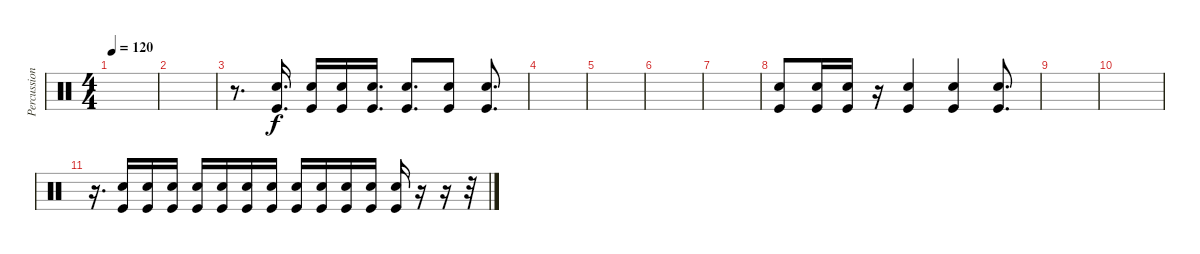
\track ("Percussion" "Percussion") {instrument percussion}
\staff {score}
\articulation defaults
\ts (4 4)
\tempo 120
\clef neutral
\ks c
|
|
r.8{d} ("Snare (hit) 2" "Kick (hit)").16{d} ("Snare (hit) 2" "Kick (hit)").16 ("Snare (hit) 2" "Kick (hit)").16 ("Snare (hit) 2" "Kick (hit)").16{d} ("Snare (hit) 2" "Kick (hit)").8{d} ("Snare (hit) 2" "Kick (hit)").8 ("Snare (hit) 2" "Kick (hit)").8{d} |
|
|
|
|
("Snare (hit) 2" "Kick (hit)").8 ("Snare (hit) 2" "Kick (hit)").16 ("Snare (hit) 2" "Kick (hit)").16 r.16 ("Snare (hit) 2" "Kick (hit)").4 ("Snare (hit) 2" "Kick (hit)").4 ("Snare (hit) 2" "Kick (hit)").8{d} |
|
|
r.16{d} ("Snare (hit) 2" "Kick (hit)").16 ("Snare (hit) 2" "Kick (hit)").16 ("Snare (hit) 2" "Kick (hit)").16 ("Snare (hit) 2" "Kick (hit)").16 ("Snare (hit) 2" "Kick (hit)").16 ("Snare (hit) 2" "Kick (hit)").16 ("Snare (hit) 2" "Kick (hit)").16 ("Snare (hit) 2" "Kick (hit)").16 ("Snare (hit) 2" "Kick (hit)").16 ("Snare (hit) 2" "Kick (hit)").16 ("Snare (hit) 2" "Kick (hit)").16 ("Snare (hit) 2" "Kick (hit)").16 r.16 r.16 r.32
